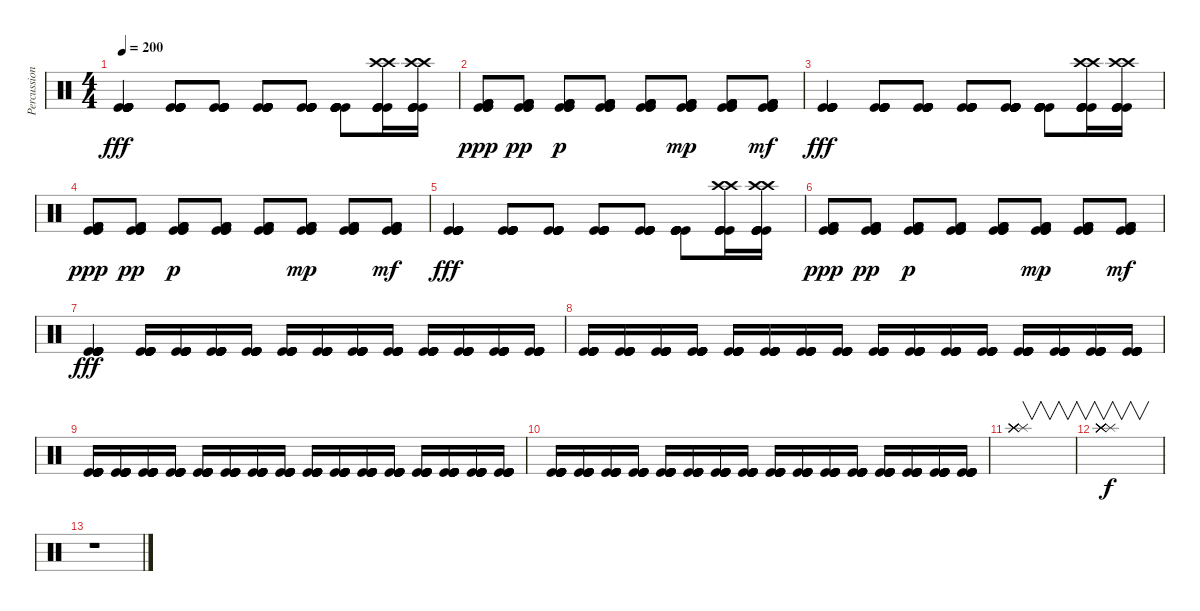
\track ("Percussion" "Percussion") {instrument percussion}
\staff {score}
\articulation defaults
\ts (4 4)
\tempo 200
\clef neutral
\ks c
("Kick (hit)" "Kick (hit)" "Kick (hit)" "Kick (hit)" "Kick (hit)" "Kick (hit)").4{dy fff} ("Kick (hit)" "Kick (hit)" "Kick (hit)" "Kick (hit)" "Kick (hit)" "Kick (hit)").8 ("Kick (hit)" "Kick (hit)" "Kick (hit)" "Kick (hit)" "Kick (hit)" "Kick (hit)").8 ("Kick (hit)" "Kick (hit)" "Kick (hit)" "Kick (hit)" "Kick (hit)" "Kick (hit)").8 ("Kick (hit)" "Kick (hit)" "Kick (hit)" "Kick (hit)" "Kick (hit)" "Kick (hit)").8 ("Kick (hit)" "Kick (hit)" "Kick (hit)" "Kick (hit)" "Kick (hit)" "Kick (hit)").8 ("Crash high (hit)" "Kick (hit)" "Kick (hit)" "Kick (hit)" "Crash high (hit)" "Kick (hit)").16 ("Kick (hit)" "Kick (hit)" "Crash high (hit)" "Kick (hit)" "Kick (hit)" "Crash high (hit)").16 |
("Kick (hit)" "Kick (hit) 2" "Kick (hit)" "Kick (hit) 2" "Kick (hit)" "Kick (hit) 2").8{dy ppp} ("Kick (hit)" "Kick (hit) 2" "Kick (hit)" "Kick (hit) 2" "Kick (hit)" "Kick (hit) 2").8{dy pp} ("Kick (hit)" "Kick (hit) 2" "Kick (hit)" "Kick (hit) 2" "Kick (hit)" "Kick (hit) 2").8{dy p} ("Kick (hit)" "Kick (hit) 2" "Kick (hit)" "Kick (hit) 2" "Kick (hit)" "Kick (hit) 2").8 ("Kick (hit)" "Kick (hit) 2" "Kick (hit)" "Kick (hit) 2" "Kick (hit)" "Kick (hit) 2").8 ("Kick (hit)" "Kick (hit) 2" "Kick (hit)" "Kick (hit) 2" "Kick (hit)" "Kick (hit) 2").8{dy mp} ("Kick (hit)" "Kick (hit) 2" "Kick (hit)" "Kick (hit) 2" "Kick (hit)" "Kick (hit) 2").8 ("Kick (hit)" "Kick (hit) 2" "Kick (hit)" "Kick (hit) 2" "Kick (hit)" "Kick (hit) 2").8{dy mf} |
("Kick (hit)" "Kick (hit)" "Kick (hit)" "Kick (hit)" "Kick (hit)" "Kick (hit)").4{dy fff} ("Kick (hit)" "Kick (hit)" "Kick (hit)" "Kick (hit)" "Kick (hit)" "Kick (hit)").8 ("Kick (hit)" "Kick (hit)" "Kick (hit)" "Kick (hit)" "Kick (hit)" "Kick (hit)").8 ("Kick (hit)" "Kick (hit)" "Kick (hit)" "Kick (hit)" "Kick (hit)" "Kick (hit)").8 ("Kick (hit)" "Kick (hit)" "Kick (hit)" "Kick (hit)" "Kick (hit)" "Kick (hit)").8 ("Kick (hit)" "Kick (hit)" "Kick (hit)" "Kick (hit)" "Kick (hit)" "Kick (hit)").8 ("Crash high (hit)" "Kick (hit)" "Kick (hit)" "Kick (hit)" "Crash high (hit)" "Kick (hit)").16 ("Kick (hit)" "Kick (hit)" "Crash high (hit)" "Kick (hit)" "Kick (hit)" "Crash high (hit)").16 |
("Kick (hit)" "Kick (hit) 2" "Kick (hit)" "Kick (hit) 2" "Kick (hit)" "Kick (hit) 2").8{dy ppp} ("Kick (hit)" "Kick (hit) 2" "Kick (hit)" "Kick (hit) 2" "Kick (hit)" "Kick (hit) 2").8{dy pp} ("Kick (hit)" "Kick (hit) 2" "Kick (hit)" "Kick (hit) 2" "Kick (hit)" "Kick (hit) 2").8{dy p} ("Kick (hit)" "Kick (hit) 2" "Kick (hit)" "Kick (hit) 2" "Kick (hit)" "Kick (hit) 2").8 ("Kick (hit)" "Kick (hit) 2" "Kick (hit)" "Kick (hit) 2" "Kick (hit)" "Kick (hit) 2").8 ("Kick (hit)" "Kick (hit) 2" "Kick (hit)" "Kick (hit) 2" "Kick (hit)" "Kick (hit) 2").8{dy mp} ("Kick (hit)" "Kick (hit) 2" "Kick (hit)" "Kick (hit) 2" "Kick (hit)" "Kick (hit) 2").8 ("Kick (hit)" "Kick (hit) 2" "Kick (hit)" "Kick (hit) 2" "Kick (hit)" "Kick (hit) 2").8{dy mf} |
("Kick (hit)" "Kick (hit)" "Kick (hit)" "Kick (hit)" "Kick (hit)" "Kick (hit)").4{dy fff} ("Kick (hit)" "Kick (hit)" "Kick (hit)" "Kick (hit)" "Kick (hit)" "Kick (hit)").8 ("Kick (hit)" "Kick (hit)" "Kick (hit)" "Kick (hit)" "Kick (hit)" "Kick (hit)").8 ("Kick (hit)" "Kick (hit)" "Kick (hit)" "Kick (hit)" "Kick (hit)" "Kick (hit)").8 ("Kick (hit)" "Kick (hit)" "Kick (hit)" "Kick (hit)" "Kick (hit)" "Kick (hit)").8 ("Kick (hit)" "Kick (hit)" "Kick (hit)" "Kick (hit)" "Kick (hit)" "Kick (hit)").8 ("Crash high (hit)" "Kick (hit)" "Kick (hit)" "Kick (hit)" "Crash high (hit)" "Kick (hit)").16 ("Kick (hit)" "Kick (hit)" "Crash high (hit)" "Kick (hit)" "Kick (hit)" "Crash high (hit)").16 |
("Kick (hit)" "Kick (hit) 2" "Kick (hit)" "Kick (hit) 2" "Kick (hit)" "Kick (hit) 2").8{dy ppp} ("Kick (hit)" "Kick (hit) 2" "Kick (hit)" "Kick (hit) 2" "Kick (hit)" "Kick (hit) 2").8{dy pp} ("Kick (hit)" "Kick (hit) 2" "Kick (hit)" "Kick (hit) 2" "Kick (hit)" "Kick (hit) 2").8{dy p} ("Kick (hit)" "Kick (hit) 2" "Kick (hit)" "Kick (hit) 2" "Kick (hit)" "Kick (hit) 2").8 ("Kick (hit)" "Kick (hit) 2" "Kick (hit)" "Kick (hit) 2" "Kick (hit)" "Kick (hit) 2").8 ("Kick (hit)" "Kick (hit) 2" "Kick (hit)" "Kick (hit) 2" "Kick (hit)" "Kick (hit) 2").8{dy mp} ("Kick (hit)" "Kick (hit) 2" "Kick (hit)" "Kick (hit) 2" "Kick (hit)" "Kick (hit) 2").8 ("Kick (hit)" "Kick (hit) 2" "Kick (hit)" "Kick (hit) 2" "Kick (hit)" "Kick (hit) 2").8{dy mf} |
("Kick (hit)" "Kick (hit)" "Kick (hit)" "Kick (hit)" "Kick (hit)" "Kick (hit)").4{dy fff} ("Kick (hit)" "Kick (hit)" "Kick (hit)" "Kick (hit)" "Kick (hit)" "Kick (hit)").16 ("Kick (hit)" "Kick (hit)" "Kick (hit)" "Kick (hit)" "Kick (hit)" "Kick (hit)").16 ("Kick (hit)" "Kick (hit)" "Kick (hit)" "Kick (hit)" "Kick (hit)" "Kick (hit)").16 ("Kick (hit)" "Kick (hit)" "Kick (hit)" "Kick (hit)" "Kick (hit)" "Kick (hit)").16 ("Kick (hit)" "Kick (hit)" "Kick (hit)" "Kick (hit)" "Kick (hit)" "Kick (hit)").16 ("Kick (hit)" "Kick (hit)" "Kick (hit)" "Kick (hit)" "Kick (hit)" "Kick (hit)").16 ("Kick (hit)" "Kick (hit)" "Kick (hit)" "Kick (hit)" "Kick (hit)" "Kick (hit)").16 ("Kick (hit)" "Kick (hit)" "Kick (hit)" "Kick (hit)" "Kick (hit)" "Kick (hit)").16 ("Kick (hit)" "Kick (hit)" "Kick (hit)" "Kick (hit)" "Kick (hit)" "Kick (hit)").16 ("Kick (hit)" "Kick (hit)" "Kick (hit)" "Kick (hit)" "Kick (hit)" "Kick (hit)").16 ("Kick (hit)" "Kick (hit)" "Kick (hit)" "Kick (hit)" "Kick (hit)" "Kick (hit)").16 ("Kick (hit)" "Kick (hit)" "Kick (hit)" "Kick (hit)" "Kick (hit)" "Kick (hit)").16 |
("Kick (hit)" "Kick (hit)" "Kick (hit)" "Kick (hit)" "Kick (hit)" "Kick (hit)").16 ("Kick (hit)" "Kick (hit)" "Kick (hit)" "Kick (hit)" "Kick (hit)" "Kick (hit)").16 ("Kick (hit)" "Kick (hit)" "Kick (hit)" "Kick (hit)" "Kick (hit)" "Kick (hit)").16 ("Kick (hit)" "Kick (hit)" "Kick (hit)" "Kick (hit)" "Kick (hit)" "Kick (hit)").16 ("Kick (hit)" "Kick (hit)" "Kick (hit)" "Kick (hit)" "Kick (hit)" "Kick (hit)").16 ("Kick (hit)" "Kick (hit)" "Kick (hit)" "Kick (hit)" "Kick (hit)" "Kick (hit)").16 ("Kick (hit)" "Kick (hit)" "Kick (hit)" "Kick (hit)" "Kick (hit)" "Kick (hit)").16 ("Kick (hit)" "Kick (hit)" "Kick (hit)" "Kick (hit)" "Kick (hit)" "Kick (hit)").16 ("Kick (hit)" "Kick (hit)" "Kick (hit)" "Kick (hit)" "Kick (hit)" "Kick (hit)").16 ("Kick (hit)" "Kick (hit)" "Kick (hit)" "Kick (hit)" "Kick (hit)" "Kick (hit)").16 ("Kick (hit)" "Kick (hit)" "Kick (hit)" "Kick (hit)" "Kick (hit)" "Kick (hit)").16 ("Kick (hit)" "Kick (hit)" "Kick (hit)" "Kick (hit)" "Kick (hit)" "Kick (hit)").16 ("Kick (hit)" "Kick (hit)" "Kick (hit)" "Kick (hit)" "Kick (hit)" "Kick (hit)").16 ("Kick (hit)" "Kick (hit)" "Kick (hit)" "Kick (hit)" "Kick (hit)" "Kick (hit)").16 ("Kick (hit)" "Kick (hit)" "Kick (hit)" "Kick (hit)" "Kick (hit)" "Kick (hit)").16 ("Kick (hit)" "Kick (hit)" "Kick (hit)" "Kick (hit)" "Kick (hit)" "Kick (hit)").16 |
("Kick (hit)" "Kick (hit)" "Kick (hit)" "Kick (hit)" "Kick (hit)" "Kick (hit)").16 ("Kick (hit)" "Kick (hit)" "Kick (hit)" "Kick (hit)" "Kick (hit)" "Kick (hit)").16 ("Kick (hit)" "Kick (hit)" "Kick (hit)" "Kick (hit)" "Kick (hit)" "Kick (hit)").16 ("Kick (hit)" "Kick (hit)" "Kick (hit)" "Kick (hit)" "Kick (hit)" "Kick (hit)").16 ("Kick (hit)" "Kick (hit)" "Kick (hit)" "Kick (hit)" "Kick (hit)" "Kick (hit)").16 ("Kick (hit)" "Kick (hit)" "Kick (hit)" "Kick (hit)" "Kick (hit)" "Kick (hit)").16 ("Kick (hit)" "Kick (hit)" "Kick (hit)" "Kick (hit)" "Kick (hit)" "Kick (hit)").16 ("Kick (hit)" "Kick (hit)" "Kick (hit)" "Kick (hit)" "Kick (hit)" "Kick (hit)").16 ("Kick (hit)" "Kick (hit)" "Kick (hit)" "Kick (hit)" "Kick (hit)" "Kick (hit)").16 ("Kick (hit)" "Kick (hit)" "Kick (hit)" "Kick (hit)" "Kick (hit)" "Kick (hit)").16 ("Kick (hit)" "Kick (hit)" "Kick (hit)" "Kick (hit)" "Kick (hit)" "Kick (hit)").16 ("Kick (hit)" "Kick (hit)" "Kick (hit)" "Kick (hit)" "Kick (hit)" "Kick (hit)").16 ("Kick (hit)" "Kick (hit)" "Kick (hit)" "Kick (hit)" "Kick (hit)" "Kick (hit)").16 ("Kick (hit)" "Kick (hit)" "Kick (hit)" "Kick (hit)" "Kick (hit)" "Kick (hit)").16 ("Kick (hit)" "Kick (hit)" "Kick (hit)" "Kick (hit)" "Kick (hit)" "Kick (hit)").16 ("Kick (hit)" "Kick (hit)" "Kick (hit)" "Kick (hit)" "Kick (hit)" "Kick (hit)").16 |
("Kick (hit)" "Kick (hit)" "Kick (hit)" "Kick (hit)" "Kick (hit)" "Kick (hit)").16 ("Kick (hit)" "Kick (hit)" "Kick (hit)" "Kick (hit)" "Kick (hit)" "Kick (hit)").16 ("Kick (hit)" "Kick (hit)" "Kick (hit)" "Kick (hit)" "Kick (hit)" "Kick (hit)").16 ("Kick (hit)" "Kick (hit)" "Kick (hit)" "Kick (hit)" "Kick (hit)" "Kick (hit)").16 ("Kick (hit)" "Kick (hit)" "Kick (hit)" "Kick (hit)" "Kick (hit)" "Kick (hit)").16 ("Kick (hit)" "Kick (hit)" "Kick (hit)" "Kick (hit)" "Kick (hit)" "Kick (hit)").16 ("Kick (hit)" "Kick (hit)" "Kick (hit)" "Kick (hit)" "Kick (hit)" "Kick (hit)").16 ("Kick (hit)" "Kick (hit)" "Kick (hit)" "Kick (hit)" "Kick (hit)" "Kick (hit)").16 ("Kick (hit)" "Kick (hit)" "Kick (hit)" "Kick (hit)" "Kick (hit)" "Kick (hit)").16 ("Kick (hit)" "Kick (hit)" "Kick (hit)" "Kick (hit)" "Kick (hit)" "Kick (hit)").16 ("Kick (hit)" "Kick (hit)" "Kick (hit)" "Kick (hit)" "Kick (hit)" "Kick (hit)").16 ("Kick (hit)" "Kick (hit)" "Kick (hit)" "Kick (hit)" "Kick (hit)" "Kick (hit)").16 ("Kick (hit)" "Kick (hit)" "Kick (hit)" "Kick (hit)" "Kick (hit)" "Kick (hit)").16 ("Kick (hit)" "Kick (hit)" "Kick (hit)" "Kick (hit)" "Kick (hit)" "Kick (hit)").16 ("Kick (hit)" "Kick (hit)" "Kick (hit)" "Kick (hit)" "Kick (hit)" "Kick (hit)").16 ("Kick (hit)" "Kick (hit)" "Kick (hit)" "Kick (hit)" "Kick (hit)" "Kick (hit)").16 |
("Splash (hit)" "Splash (hit)" "Splash (hit)" "Splash (hit)" "Splash (hit)" "Splash (hit)").1{v} |
("Splash (hit)" "Splash (hit)" "Splash (hit)" "Splash (hit)" "Splash (hit)" "Splash (hit)").1{v dy f} |
r.1
